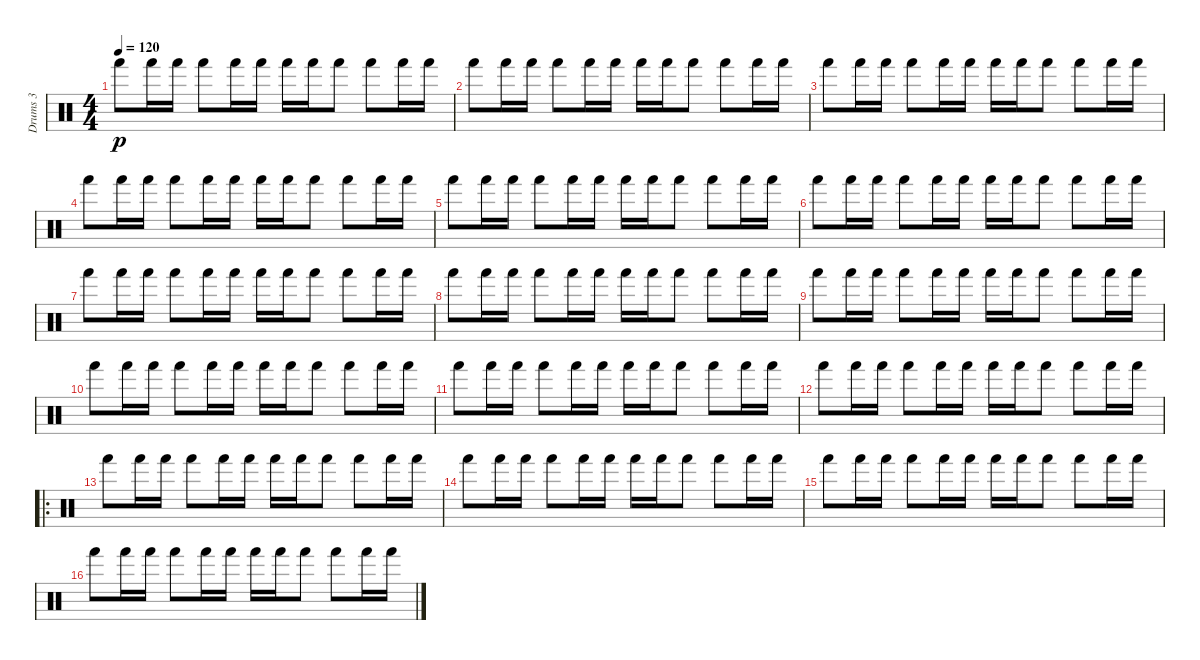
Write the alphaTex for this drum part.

\track ("Drums 3" "Drums 3") {instrument percussion}
\staff {score}
\articulation defaults
\ts (4 4)
\tempo 120
\clef neutral
\ks c "Hand (hit)".8{dy p} "Hand (hit)".16 "Hand (hit)".16 "Hand (hit)".8 "Hand (hit)".16 "Hand (hit)".16 "Hand (hit)".16 "Hand (hit)".16 "Hand (hit)".8 "Hand (hit)".8 "Hand (hit)".16 "Hand (hit)".16
|
"Hand (hit)".8 "Hand (hit)".16 "Hand (hit)".16 "Hand (hit)".8 "Hand (hit)".16 "Hand (hit)".16 "Hand (hit)".16 "Hand (hit)".16 "Hand (hit)".8 "Hand (hit)".8 "Hand (hit)".16 "Hand (hit)".16 |
"Hand (hit)".8 "Hand (hit)".16 "Hand (hit)".16 "Hand (hit)".8 "Hand (hit)".16 "Hand (hit)".16 "Hand (hit)".16 "Hand (hit)".16 "Hand (hit)".8 "Hand (hit)".8 "Hand (hit)".16 "Hand (hit)".16 |
"Hand (hit)".8 "Hand (hit)".16 "Hand (hit)".16 "Hand (hit)".8 "Hand (hit)".16 "Hand (hit)".16 "Hand (hit)".16 "Hand (hit)".16 "Hand (hit)".8 "Hand (hit)".8 "Hand (hit)".16 "Hand (hit)".16 |
"Hand (hit)".8 "Hand (hit)".16 "Hand (hit)".16 "Hand (hit)".8 "Hand (hit)".16 "Hand (hit)".16 "Hand (hit)".16 "Hand (hit)".16 "Hand (hit)".8 "Hand (hit)".8 "Hand (hit)".16 "Hand (hit)".16 |
"Hand (hit)".8 "Hand (hit)".16 "Hand (hit)".16 "Hand (hit)".8 "Hand (hit)".16 "Hand (hit)".16 "Hand (hit)".16 "Hand (hit)".16 "Hand (hit)".8 "Hand (hit)".8 "Hand (hit)".16 "Hand (hit)".16 |
"Hand (hit)".8 "Hand (hit)".16 "Hand (hit)".16 "Hand (hit)".8 "Hand (hit)".16 "Hand (hit)".16 "Hand (hit)".16 "Hand (hit)".16 "Hand (hit)".8 "Hand (hit)".8 "Hand (hit)".16 "Hand (hit)".16 |
"Hand (hit)".8 "Hand (hit)".16 "Hand (hit)".16 "Hand (hit)".8 "Hand (hit)".16 "Hand (hit)".16 "Hand (hit)".16 "Hand (hit)".16 "Hand (hit)".8 "Hand (hit)".8 "Hand (hit)".16 "Hand (hit)".16 |
"Hand (hit)".8 "Hand (hit)".16 "Hand (hit)".16 "Hand (hit)".8 "Hand (hit)".16 "Hand (hit)".16 "Hand (hit)".16 "Hand (hit)".16 "Hand (hit)".8 "Hand (hit)".8 "Hand (hit)".16 "Hand (hit)".16 |
"Hand (hit)".8 "Hand (hit)".16 "Hand (hit)".16 "Hand (hit)".8 "Hand (hit)".16 "Hand (hit)".16 "Hand (hit)".16 "Hand (hit)".16 "Hand (hit)".8 "Hand (hit)".8 "Hand (hit)".16 "Hand (hit)".16 |
"Hand (hit)".8 "Hand (hit)".16 "Hand (hit)".16 "Hand (hit)".8 "Hand (hit)".16 "Hand (hit)".16 "Hand (hit)".16 "Hand (hit)".16 "Hand (hit)".8 "Hand (hit)".8 "Hand (hit)".16 "Hand (hit)".16 |
"Hand (hit)".8 "Hand (hit)".16 "Hand (hit)".16 "Hand (hit)".8 "Hand (hit)".16 "Hand (hit)".16 "Hand (hit)".16 "Hand (hit)".16 "Hand (hit)".8 "Hand (hit)".8 "Hand (hit)".16 "Hand (hit)".16 |
\ro "Hand (hit)".8 "Hand (hit)".16 "Hand (hit)".16 "Hand (hit)".8 "Hand (hit)".16 "Hand (hit)".16 "Hand (hit)".16 "Hand (hit)".16 "Hand (hit)".8 "Hand (hit)".8 "Hand (hit)".16 "Hand (hit)".16
|
"Hand (hit)".8 "Hand (hit)".16 "Hand (hit)".16 "Hand (hit)".8 "Hand (hit)".16 "Hand (hit)".16 "Hand (hit)".16 "Hand (hit)".16 "Hand (hit)".8 "Hand (hit)".8 "Hand (hit)".16 "Hand (hit)".16 |
"Hand (hit)".8 "Hand (hit)".16 "Hand (hit)".16 "Hand (hit)".8 "Hand (hit)".16 "Hand (hit)".16 "Hand (hit)".16 "Hand (hit)".16 "Hand (hit)".8 "Hand (hit)".8 "Hand (hit)".16 "Hand (hit)".16 |
"Hand (hit)".8 "Hand (hit)".16 "Hand (hit)".16 "Hand (hit)".8 "Hand (hit)".16 "Hand (hit)".16 "Hand (hit)".16 "Hand (hit)".16 "Hand (hit)".8 "Hand (hit)".8 "Hand (hit)".16 "Hand (hit)".16
